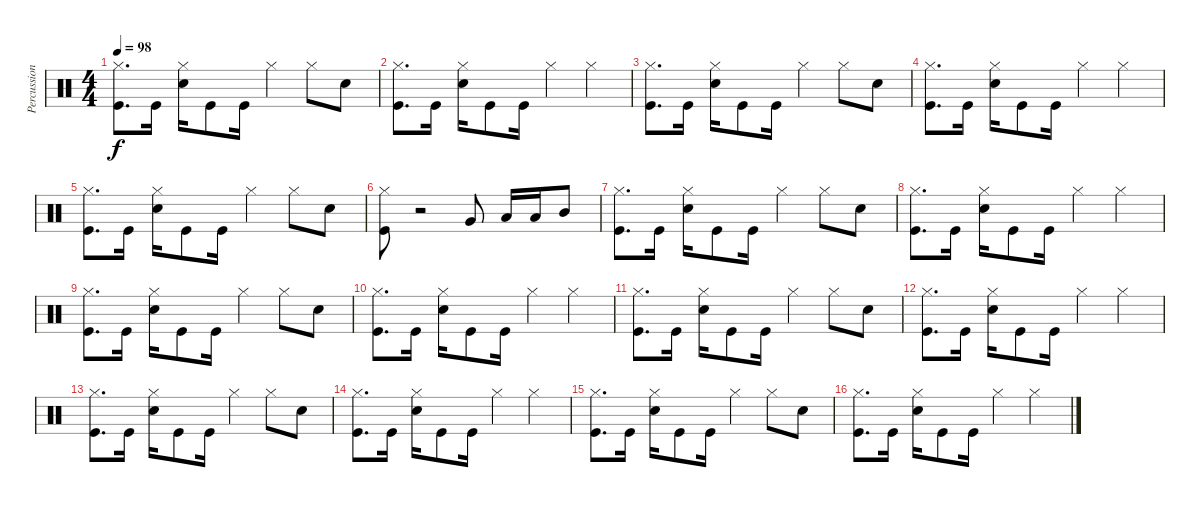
\track ("Percussioni" "Percussion") {instrument percussion}
\staff {score}
\articulation defaults
\ts (4 4)
\tempo 98
\clef neutral
\ks c
("Kick (hit)" "Hi-Hat (closed)").8{d dy f} "Kick (hit)".16 ("Snare (hit) 2" "Hi-Hat (closed)").16 "Kick (hit)".8 "Kick (hit)".16 "Hi-Hat (closed)".4 "Hi-Hat (closed)".8 "Snare (hit) 2".8 |
("Kick (hit)" "Hi-Hat (closed)").8{d} "Kick (hit)".16 ("Snare (hit) 2" "Hi-Hat (closed)").16 "Kick (hit)".8 "Kick (hit)".16 "Hi-Hat (closed)".4 "Hi-Hat (closed)".4 |
("Kick (hit)" "Hi-Hat (closed)").8{d} "Kick (hit)".16 ("Snare (hit) 2" "Hi-Hat (closed)").16 "Kick (hit)".8 "Kick (hit)".16 "Hi-Hat (closed)".4 "Hi-Hat (closed)".8 "Snare (hit) 2".8 |
("Kick (hit)" "Hi-Hat (closed)").8{d} "Kick (hit)".16 ("Snare (hit) 2" "Hi-Hat (closed)").16 "Kick (hit)".8 "Kick (hit)".16 "Hi-Hat (closed)".4 "Hi-Hat (closed)".4 |
("Kick (hit)" "Hi-Hat (closed)").8{d} "Kick (hit)".16 ("Snare (hit) 2" "Hi-Hat (closed)").16 "Kick (hit)".8 "Kick (hit)".16 "Hi-Hat (closed)".4 "Hi-Hat (closed)".8 "Snare (hit) 2".8 |
("Kick (hit)" "Hi-Hat (closed)").8 r.2 "Very Low Tom (hit)".8 "Low Tom (hit)".16 "Low Tom (hit)".16 "Mid Tom (hit)".8 |
("Kick (hit)" "Hi-Hat (closed)").8{d} "Kick (hit)".16 ("Snare (hit) 2" "Hi-Hat (closed)").16 "Kick (hit)".8 "Kick (hit)".16 "Hi-Hat (closed)".4 "Hi-Hat (closed)".8 "Snare (hit) 2".8 |
("Kick (hit)" "Hi-Hat (closed)").8{d} "Kick (hit)".16 ("Snare (hit) 2" "Hi-Hat (closed)").16 "Kick (hit)".8 "Kick (hit)".16 "Hi-Hat (closed)".4 "Hi-Hat (closed)".4 |
("Kick (hit)" "Hi-Hat (closed)").8{d} "Kick (hit)".16 ("Snare (hit) 2" "Hi-Hat (closed)").16 "Kick (hit)".8 "Kick (hit)".16 "Hi-Hat (closed)".4 "Hi-Hat (closed)".8 "Snare (hit) 2".8 |
("Kick (hit)" "Hi-Hat (closed)").8{d} "Kick (hit)".16 ("Snare (hit) 2" "Hi-Hat (closed)").16 "Kick (hit)".8 "Kick (hit)".16 "Hi-Hat (closed)".4 "Hi-Hat (closed)".4 |
("Kick (hit)" "Hi-Hat (closed)").8{d} "Kick (hit)".16 ("Snare (hit) 2" "Hi-Hat (closed)").16 "Kick (hit)".8 "Kick (hit)".16 "Hi-Hat (closed)".4 "Hi-Hat (closed)".8 "Snare (hit) 2".8 |
("Kick (hit)" "Hi-Hat (closed)").8{d} "Kick (hit)".16 ("Snare (hit) 2" "Hi-Hat (closed)").16 "Kick (hit)".8 "Kick (hit)".16 "Hi-Hat (closed)".4 "Hi-Hat (closed)".4 |
("Kick (hit)" "Hi-Hat (closed)").8{d} "Kick (hit)".16 ("Snare (hit) 2" "Hi-Hat (closed)").16 "Kick (hit)".8 "Kick (hit)".16 "Hi-Hat (closed)".4 "Hi-Hat (closed)".8 "Snare (hit) 2".8 |
("Kick (hit)" "Hi-Hat (closed)").8{d} "Kick (hit)".16 ("Snare (hit) 2" "Hi-Hat (closed)").16 "Kick (hit)".8 "Kick (hit)".16 "Hi-Hat (closed)".4 "Hi-Hat (closed)".4 |
("Kick (hit)" "Hi-Hat (closed)").8{d} "Kick (hit)".16 ("Snare (hit) 2" "Hi-Hat (closed)").16 "Kick (hit)".8 "Kick (hit)".16 "Hi-Hat (closed)".4 "Hi-Hat (closed)".8 "Snare (hit) 2".8 |
("Kick (hit)" "Hi-Hat (closed)").8{d} "Kick (hit)".16 ("Snare (hit) 2" "Hi-Hat (closed)").16 "Kick (hit)".8 "Kick (hit)".16 "Hi-Hat (closed)".4 "Hi-Hat (closed)".4
